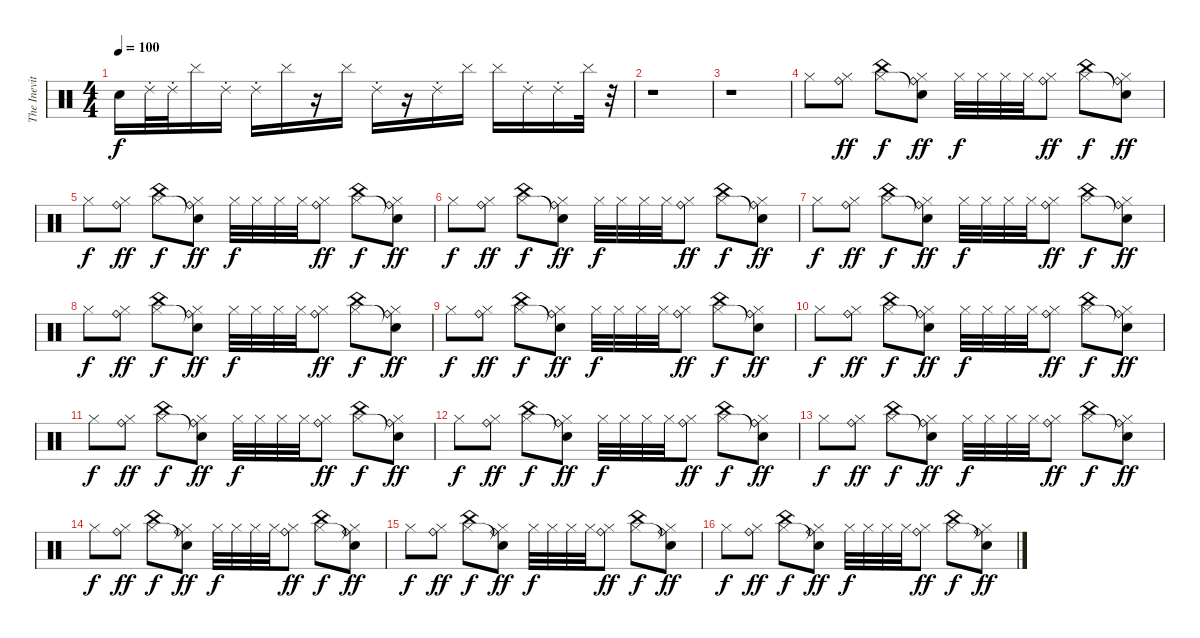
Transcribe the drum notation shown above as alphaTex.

\track ("The Inevitable" "The Inevit") {instrument percussion}
\staff {score}
\articulation defaults
\ts (4 4)
\tempo 100
\clef neutral
\ks c "Snare (hit)"{t}.16{dy f} "Ride (choke) 2".32 "Ride (choke) 2".32 "Cymbal (hit)".16 "Ride (choke) 2".16 "Ride (choke) 2".16 "Cymbal (hit)".16
r.16 "Cymbal (hit)".16 "Ride (choke) 2".16 r.16 "Ride (choke) 2".16 "Cymbal (hit)".16 "Cymbal (hit)".16 "Ride (choke) 2".16 "Ride (choke) 2".16 "Cymbal (hit)".32 r.32 |
r.1 |
r.1 |
"Hi-Hat (closed)".8 ("Ride (bell)" "Hi-Hat (closed)").8{dy ff} ("China (hit)" "Hi-Hat (closed)").8{dy f} ("Ride (bell)" "Snare (hit)"{t} "Hi-Hat (closed)").8{dy ff} "Hi-Hat (closed)".32{dy f} "Hi-Hat (closed)".32 "Hi-Hat (closed)".32 "Hi-Hat (closed)".32 ("Ride (bell)" "Hi-Hat (closed)").8{dy ff} ("China (hit)" "Hi-Hat (closed)").8{dy f} ("Ride (bell)" "Snare (hit)"{t} "Hi-Hat (closed)").8{dy ff} |
"Hi-Hat (closed)".8{dy f} ("Ride (bell)" "Hi-Hat (closed)").8{dy ff} ("China (hit)" "Hi-Hat (closed)").8{dy f} ("Ride (bell)" "Snare (hit)"{t} "Hi-Hat (closed)").8{dy ff} "Hi-Hat (closed)".32{dy f} "Hi-Hat (closed)".32 "Hi-Hat (closed)".32 "Hi-Hat (closed)".32 ("Ride (bell)" "Hi-Hat (closed)").8{dy ff} ("China (hit)" "Hi-Hat (closed)").8{dy f} ("Ride (bell)" "Snare (hit)"{t} "Hi-Hat (closed)").8{dy ff} |
"Hi-Hat (closed)".8{dy f} ("Ride (bell)" "Hi-Hat (closed)").8{dy ff} ("China (hit)" "Hi-Hat (closed)").8{dy f} ("Ride (bell)" "Snare (hit)"{t} "Hi-Hat (closed)").8{dy ff} "Hi-Hat (closed)".32{dy f} "Hi-Hat (closed)".32 "Hi-Hat (closed)".32 "Hi-Hat (closed)".32 ("Ride (bell)" "Hi-Hat (closed)").8{dy ff} ("China (hit)" "Hi-Hat (closed)").8{dy f} ("Ride (bell)" "Snare (hit)"{t} "Hi-Hat (closed)").8{dy ff} |
"Hi-Hat (closed)".8{dy f} ("Ride (bell)" "Hi-Hat (closed)").8{dy ff} ("China (hit)" "Hi-Hat (closed)").8{dy f} ("Ride (bell)" "Snare (hit)"{t} "Hi-Hat (closed)").8{dy ff} "Hi-Hat (closed)".32{dy f} "Hi-Hat (closed)".32 "Hi-Hat (closed)".32 "Hi-Hat (closed)".32 ("Ride (bell)" "Hi-Hat (closed)").8{dy ff} ("China (hit)" "Hi-Hat (closed)").8{dy f} ("Ride (bell)" "Snare (hit)"{t} "Hi-Hat (closed)").8{dy ff} |
"Hi-Hat (closed)".8{dy f} ("Ride (bell)" "Hi-Hat (closed)").8{dy ff} ("China (hit)" "Hi-Hat (closed)").8{dy f} ("Ride (bell)" "Snare (hit)"{t} "Hi-Hat (closed)").8{dy ff} "Hi-Hat (closed)".32{dy f} "Hi-Hat (closed)".32 "Hi-Hat (closed)".32 "Hi-Hat (closed)".32 ("Ride (bell)" "Hi-Hat (closed)").8{dy ff} ("China (hit)" "Hi-Hat (closed)").8{dy f} ("Ride (bell)" "Snare (hit)"{t} "Hi-Hat (closed)").8{dy ff} |
"Hi-Hat (closed)".8{dy f} ("Ride (bell)" "Hi-Hat (closed)").8{dy ff} ("China (hit)" "Hi-Hat (closed)").8{dy f} ("Ride (bell)" "Snare (hit)"{t} "Hi-Hat (closed)").8{dy ff} "Hi-Hat (closed)".32{dy f} "Hi-Hat (closed)".32 "Hi-Hat (closed)".32 "Hi-Hat (closed)".32 ("Ride (bell)" "Hi-Hat (closed)").8{dy ff} ("China (hit)" "Hi-Hat (closed)").8{dy f} ("Ride (bell)" "Snare (hit)"{t} "Hi-Hat (closed)").8{dy ff} |
"Hi-Hat (closed)".8{dy f} ("Ride (bell)" "Hi-Hat (closed)").8{dy ff} ("China (hit)" "Hi-Hat (closed)").8{dy f} ("Ride (bell)" "Snare (hit)"{t} "Hi-Hat (closed)").8{dy ff} "Hi-Hat (closed)".32{dy f} "Hi-Hat (closed)".32 "Hi-Hat (closed)".32 "Hi-Hat (closed)".32 ("Ride (bell)" "Hi-Hat (closed)").8{dy ff} ("China (hit)" "Hi-Hat (closed)").8{dy f} ("Ride (bell)" "Snare (hit)"{t} "Hi-Hat (closed)").8{dy ff} |
"Hi-Hat (closed)".8{dy f} ("Ride (bell)" "Hi-Hat (closed)").8{dy ff} ("China (hit)" "Hi-Hat (closed)").8{dy f} ("Ride (bell)" "Snare (hit)"{t} "Hi-Hat (closed)").8{dy ff} "Hi-Hat (closed)".32{dy f} "Hi-Hat (closed)".32 "Hi-Hat (closed)".32 "Hi-Hat (closed)".32 ("Ride (bell)" "Hi-Hat (closed)").8{dy ff} ("China (hit)" "Hi-Hat (closed)").8{dy f} ("Ride (bell)" "Snare (hit)"{t} "Hi-Hat (closed)").8{dy ff} |
"Hi-Hat (closed)".8{dy f} ("Ride (bell)" "Hi-Hat (closed)").8{dy ff} ("China (hit)" "Hi-Hat (closed)").8{dy f} ("Ride (bell)" "Snare (hit)"{t} "Hi-Hat (closed)").8{dy ff} "Hi-Hat (closed)".32{dy f} "Hi-Hat (closed)".32 "Hi-Hat (closed)".32 "Hi-Hat (closed)".32 ("Ride (bell)" "Hi-Hat (closed)").8{dy ff} ("China (hit)" "Hi-Hat (closed)").8{dy f} ("Ride (bell)" "Snare (hit)"{t} "Hi-Hat (closed)").8{dy ff} |
"Hi-Hat (closed)".8{dy f} ("Ride (bell)" "Hi-Hat (closed)").8{dy ff} ("China (hit)" "Hi-Hat (closed)").8{dy f} ("Ride (bell)" "Snare (hit)"{t} "Hi-Hat (closed)").8{dy ff} "Hi-Hat (closed)".32{dy f} "Hi-Hat (closed)".32 "Hi-Hat (closed)".32 "Hi-Hat (closed)".32 ("Ride (bell)" "Hi-Hat (closed)").8{dy ff} ("China (hit)" "Hi-Hat (closed)").8{dy f} ("Ride (bell)" "Snare (hit)"{t} "Hi-Hat (closed)").8{dy ff} |
"Hi-Hat (closed)".8{dy f} ("Ride (bell)" "Hi-Hat (closed)").8{dy ff} ("China (hit)" "Hi-Hat (closed)").8{dy f} ("Ride (bell)" "Snare (hit)"{t} "Hi-Hat (closed)").8{dy ff} "Hi-Hat (closed)".32{dy f} "Hi-Hat (closed)".32 "Hi-Hat (closed)".32 "Hi-Hat (closed)".32 ("Ride (bell)" "Hi-Hat (closed)").8{dy ff} ("China (hit)" "Hi-Hat (closed)").8{dy f} ("Ride (bell)" "Snare (hit)"{t} "Hi-Hat (closed)").8{dy ff} |
"Hi-Hat (closed)".8{dy f} ("Ride (bell)" "Hi-Hat (closed)").8{dy ff} ("China (hit)" "Hi-Hat (closed)").8{dy f} ("Ride (bell)" "Snare (hit)"{t} "Hi-Hat (closed)").8{dy ff} "Hi-Hat (closed)".32{dy f} "Hi-Hat (closed)".32 "Hi-Hat (closed)".32 "Hi-Hat (closed)".32 ("Ride (bell)" "Hi-Hat (closed)").8{dy ff} ("China (hit)" "Hi-Hat (closed)").8{dy f} ("Ride (bell)" "Snare (hit)"{t} "Hi-Hat (closed)").8{dy ff} |
"Hi-Hat (closed)".8{dy f} ("Ride (bell)" "Hi-Hat (closed)").8{dy ff} ("China (hit)" "Hi-Hat (closed)").8{dy f} ("Ride (bell)" "Snare (hit)"{t} "Hi-Hat (closed)").8{dy ff} "Hi-Hat (closed)".32{dy f} "Hi-Hat (closed)".32 "Hi-Hat (closed)".32 "Hi-Hat (closed)".32 ("Ride (bell)" "Hi-Hat (closed)").8{dy ff} ("China (hit)" "Hi-Hat (closed)").8{dy f} ("Ride (bell)" "Snare (hit)"{t} "Hi-Hat (closed)").8{dy ff}
